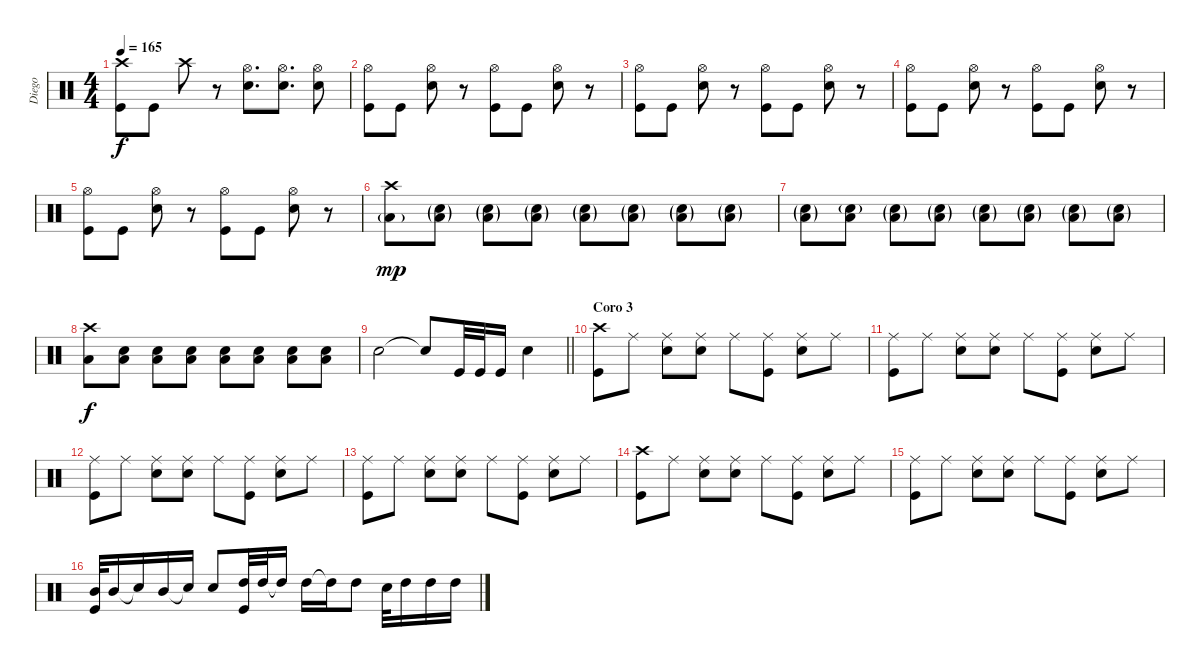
\track ("Diego" "Diego") {instrument percussion}
\staff {score}
\articulation defaults
\ts (4 4)
\tempo 165
\clef neutral
\ks c
("Crash high (hit)" "Kick (hit)").8{dy f} "Kick (hit)".8 "Crash high (hit)".8 r.8 ("Hi-Hat (open)" "Snare (hit) 2").8{d} ("Hi-Hat (open)" "Snare (hit) 2").8{d} ("Hi-Hat (open)" "Snare (hit) 2").8 |
("Hi-Hat (open)" "Kick (hit)").8 "Kick (hit)".8 ("Hi-Hat (open)" "Snare (hit) 2").8 r.8 ("Hi-Hat (open)" "Kick (hit)").8 "Kick (hit)".8 ("Hi-Hat (open)" "Snare (hit) 2").8 r.8 |
("Hi-Hat (open)" "Kick (hit)").8 "Kick (hit)".8 ("Hi-Hat (open)" "Snare (hit) 2").8 r.8 ("Hi-Hat (open)" "Kick (hit)").8 "Kick (hit)".8 ("Hi-Hat (open)" "Snare (hit) 2").8 r.8 |
("Hi-Hat (open)" "Kick (hit)").8 "Kick (hit)".8 ("Hi-Hat (open)" "Snare (hit) 2").8 r.8 ("Hi-Hat (open)" "Kick (hit)").8 "Kick (hit)".8 ("Hi-Hat (open)" "Snare (hit) 2").8 r.8 |
("Hi-Hat (open)" "Kick (hit)").8 "Kick (hit)".8 ("Hi-Hat (open)" "Snare (hit) 2").8 r.8 ("Hi-Hat (open)" "Kick (hit)").8 "Kick (hit)".8 ("Hi-Hat (open)" "Snare (hit) 2").8 r.8 |
("Crash high (hit)" "Low Floor Tom (hit)"{g}).8{dy mp} ("Snare (hit) 2"{g} "Low Floor Tom (hit)"{g}).8 ("Snare (hit) 2"{g} "Low Floor Tom (hit)"{g}).8 ("Snare (hit) 2"{g} "Low Floor Tom (hit)"{g}).8 ("Snare (hit) 2"{g} "Low Floor Tom (hit)"{g}).8 ("Snare (hit) 2"{g} "Low Floor Tom (hit)"{g}).8 ("Snare (hit) 2"{g} "Low Floor Tom (hit)"{g}).8 ("Snare (hit) 2"{g} "Low Floor Tom (hit)"{g}).8 |
("Snare (hit) 2"{g} "Low Floor Tom (hit)"{g}).8 ("Snare (hit) 2"{g} "Low Floor Tom (hit)").8 ("Snare (hit) 2"{g} "Low Floor Tom (hit)"{g}).8 ("Snare (hit) 2"{g} "Low Floor Tom (hit)"{g}).8 ("Snare (hit) 2"{g} "Low Floor Tom (hit)"{g}).8 ("Snare (hit) 2"{g} "Low Floor Tom (hit)"{g}).8 ("Snare (hit) 2"{g} "Low Floor Tom (hit)"{g}).8 ("Snare (hit) 2"{g} "Low Floor Tom (hit)"{g}).8 |
("Crash high (hit)" "Low Floor Tom (hit)").8{dy f} ("Snare (hit) 2" "Low Floor Tom (hit)").8 ("Snare (hit) 2" "Low Floor Tom (hit)").8 ("Snare (hit) 2" "Low Floor Tom (hit)").8 ("Snare (hit) 2" "Low Floor Tom (hit)").8 ("Snare (hit) 2" "Low Floor Tom (hit)").8 ("Snare (hit) 2" "Low Floor Tom (hit)").8 ("Snare (hit) 2" "Low Floor Tom (hit)").8 |
\barLineRight lightlight "Snare (hit) 2".2 "Snare (hit)"{t}.8 "Kick (hit)".32 "Kick (hit)".32 "Kick (hit)".16 "Snare (hit) 2".4
|
\section ("" "Coro 3")
("Crash high (hit)" "Kick (hit)").8 "Ride (middle)".8 ("Ride (middle)" "Snare (hit) 2").8 ("Ride (middle)" "Snare (hit) 2").8 "Ride (middle)".8 ("Ride (middle)" "Kick (hit)").8 ("Ride (middle)" "Snare (hit) 2").8 "Ride (middle)".8 |
("Ride (middle)" "Kick (hit)").8 "Ride (middle)".8 ("Ride (middle)" "Snare (hit) 2").8 ("Ride (middle)" "Snare (hit) 2").8 "Ride (middle)".8 ("Ride (middle)" "Kick (hit)").8 ("Ride (middle)" "Snare (hit) 2").8 "Ride (middle)".8 |
("Ride (middle)" "Kick (hit)").8 "Ride (middle)".8 ("Ride (middle)" "Snare (hit) 2").8 ("Ride (middle)" "Snare (hit) 2").8 "Ride (middle)".8 ("Ride (middle)" "Kick (hit)").8 ("Ride (middle)" "Snare (hit) 2").8 "Ride (middle)".8 |
("Ride (middle)" "Kick (hit)").8 "Ride (middle)".8 ("Ride (middle)" "Snare (hit) 2").8 ("Ride (middle)" "Snare (hit) 2").8 "Ride (middle)".8 ("Ride (middle)" "Kick (hit)").8 ("Ride (middle)" "Snare (hit) 2").8 "Ride (middle)".8 |
("Crash high (hit)" "Kick (hit)").8 "Ride (middle)".8 ("Ride (middle)" "Snare (hit) 2").8 ("Ride (middle)" "Snare (hit) 2").8 "Ride (middle)".8 ("Ride (middle)" "Kick (hit)").8 ("Ride (middle)" "Snare (hit) 2").8 "Ride (middle)".8 |
("Ride (middle)" "Kick (hit)").8 "Ride (middle)".8 ("Ride (middle)" "Snare (hit) 2").8 ("Ride (middle)" "Snare (hit) 2").8 "Ride (middle)".8 ("Ride (middle)" "Kick (hit)").8 ("Ride (middle)" "Snare (hit) 2").8 "Ride (middle)".8 |
("Mid Tom (hit)" "Kick (hit)").32 "Mid Tom (hit)".16 "Snare (hit)"{t}.16 "Mid Tom (hit)".16 "Snare (hit)"{t}.16 "Snare (hit) 2".8 ("High Tom (hit)" "Kick (hit)").32 "High Tom (hit)".32 "High Tom (hit)"{t}.16 "High Tom (hit)".16 "High Tom (hit)"{t}.16 "High Tom (hit)".8 "Snare (hit) 2".32 "High Tom (hit)".16 "High Tom (hit)".16 "High Tom (hit)".16
